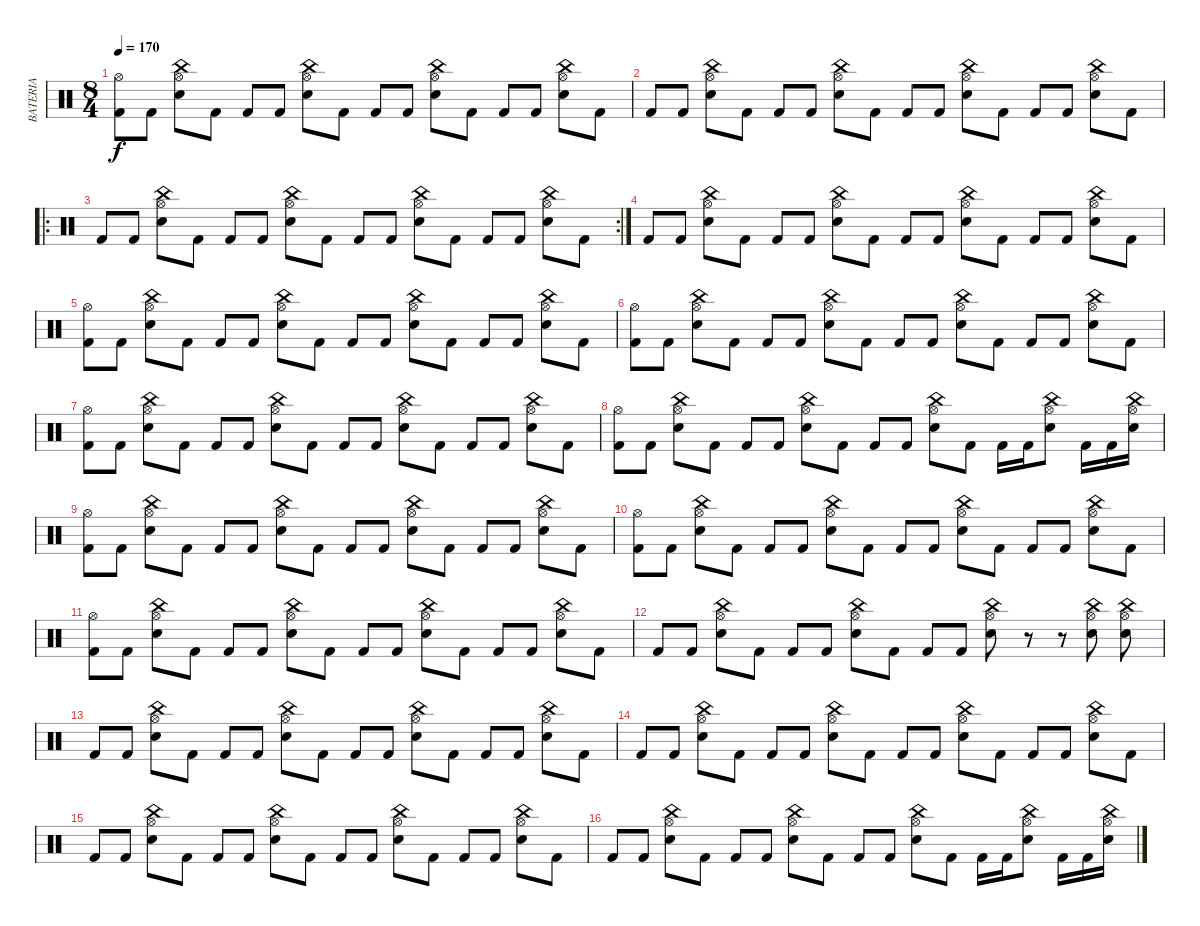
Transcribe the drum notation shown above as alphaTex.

\track ("BATERIA" "BATERIA") {instrument percussion}
\staff {score}
\articulation defaults
\ts (8 4)
\tempo 170
\clef neutral
\ks c
("Kick (hit) 2" "Hi-Hat (open)").8{dy f} "Kick (hit) 2".8 ("Snare (hit) 2" "Hi-Hat (open)" "China (hit)").8 "Kick (hit) 2".8 "Kick (hit) 2".8 "Kick (hit) 2".8 ("Snare (hit) 2" "Hi-Hat (open)" "China (hit)").8 "Kick (hit) 2".8 "Kick (hit) 2".8 "Kick (hit) 2".8 ("Snare (hit) 2" "Hi-Hat (open)" "China (hit)").8 "Kick (hit) 2".8 "Kick (hit) 2".8 "Kick (hit) 2".8 ("Snare (hit) 2" "Hi-Hat (open)" "China (hit)").8 "Kick (hit) 2".8 |
"Kick (hit) 2".8 "Kick (hit) 2".8 ("Snare (hit) 2" "Hi-Hat (open)" "China (hit)").8 "Kick (hit) 2".8 "Kick (hit) 2".8 "Kick (hit) 2".8 ("Snare (hit) 2" "Hi-Hat (open)" "China (hit)").8 "Kick (hit) 2".8 "Kick (hit) 2".8 "Kick (hit) 2".8 ("Snare (hit) 2" "Hi-Hat (open)" "China (hit)").8 "Kick (hit) 2".8 "Kick (hit) 2".8 "Kick (hit) 2".8 ("Snare (hit) 2" "Hi-Hat (open)" "China (hit)").8 "Kick (hit) 2".8 |
\ro
\rc 2 "Kick (hit) 2".8 "Kick (hit) 2".8
("Snare (hit) 2" "Hi-Hat (open)" "China (hit)").8 "Kick (hit) 2".8 "Kick (hit) 2".8 "Kick (hit) 2".8 ("Snare (hit) 2" "Hi-Hat (open)" "China (hit)").8 "Kick (hit) 2".8 "Kick (hit) 2".8 "Kick (hit) 2".8 ("Snare (hit) 2" "Hi-Hat (open)" "China (hit)").8 "Kick (hit) 2".8 "Kick (hit) 2".8 "Kick (hit) 2".8 ("Snare (hit) 2" "Hi-Hat (open)" "China (hit)").8 "Kick (hit) 2".8 |
"Kick (hit) 2".8 "Kick (hit) 2".8 ("Snare (hit) 2" "Hi-Hat (open)" "China (hit)").8 "Kick (hit) 2".8 "Kick (hit) 2".8 "Kick (hit) 2".8 ("Snare (hit) 2" "Hi-Hat (open)" "China (hit)").8 "Kick (hit) 2".8 "Kick (hit) 2".8 "Kick (hit) 2".8 ("Snare (hit) 2" "Hi-Hat (open)" "China (hit)").8 "Kick (hit) 2".8 "Kick (hit) 2".8 "Kick (hit) 2".8 ("Snare (hit) 2" "Hi-Hat (open)" "China (hit)").8 "Kick (hit) 2".8 |
("Kick (hit) 2" "Hi-Hat (open)").8 "Kick (hit) 2".8 ("Snare (hit) 2" "Hi-Hat (open)" "China (hit)").8 "Kick (hit) 2".8 "Kick (hit) 2".8 "Kick (hit) 2".8 ("Snare (hit) 2" "Hi-Hat (open)" "China (hit)").8 "Kick (hit) 2".8 "Kick (hit) 2".8 "Kick (hit) 2".8 ("Snare (hit) 2" "Hi-Hat (open)" "China (hit)").8 "Kick (hit) 2".8 "Kick (hit) 2".8 "Kick (hit) 2".8 ("Snare (hit) 2" "Hi-Hat (open)" "China (hit)").8 "Kick (hit) 2".8 |
("Kick (hit) 2" "Hi-Hat (open)").8 "Kick (hit) 2".8 ("Snare (hit) 2" "Hi-Hat (open)" "China (hit)").8 "Kick (hit) 2".8 "Kick (hit) 2".8 "Kick (hit) 2".8 ("Snare (hit) 2" "Hi-Hat (open)" "China (hit)").8 "Kick (hit) 2".8 "Kick (hit) 2".8 "Kick (hit) 2".8 ("Snare (hit) 2" "Hi-Hat (open)" "China (hit)").8 "Kick (hit) 2".8 "Kick (hit) 2".8 "Kick (hit) 2".8 ("Snare (hit) 2" "Hi-Hat (open)" "China (hit)").8 "Kick (hit) 2".8 |
("Kick (hit) 2" "Hi-Hat (open)").8 "Kick (hit) 2".8 ("Snare (hit) 2" "Hi-Hat (open)" "China (hit)").8 "Kick (hit) 2".8 "Kick (hit) 2".8 "Kick (hit) 2".8 ("Snare (hit) 2" "Hi-Hat (open)" "China (hit)").8 "Kick (hit) 2".8 "Kick (hit) 2".8 "Kick (hit) 2".8 ("Snare (hit) 2" "Hi-Hat (open)" "China (hit)").8 "Kick (hit) 2".8 "Kick (hit) 2".8 "Kick (hit) 2".8 ("Snare (hit) 2" "Hi-Hat (open)" "China (hit)").8 "Kick (hit) 2".8 |
("Kick (hit) 2" "Hi-Hat (open)").8 "Kick (hit) 2".8 ("Snare (hit) 2" "Hi-Hat (open)" "China (hit)").8 "Kick (hit) 2".8 "Kick (hit) 2".8 "Kick (hit) 2".8 ("Snare (hit) 2" "Hi-Hat (open)" "China (hit)").8 "Kick (hit) 2".8 "Kick (hit) 2".8 "Kick (hit) 2".8 ("Snare (hit) 2" "Hi-Hat (open)" "China (hit)").8 "Kick (hit) 2".8 "Kick (hit) 2".16 "Kick (hit) 2".16 ("Snare (hit) 2" "Hi-Hat (open)" "China (hit)").8 "Kick (hit) 2".16 "Kick (hit) 2".16 ("Snare (hit) 2" "China (hit)" "Hi-Hat (open)").16 |
("Kick (hit) 2" "Hi-Hat (open)").8 "Kick (hit) 2".8 ("Snare (hit) 2" "Hi-Hat (open)" "China (hit)").8 "Kick (hit) 2".8 "Kick (hit) 2".8 "Kick (hit) 2".8 ("Snare (hit) 2" "Hi-Hat (open)" "China (hit)").8 "Kick (hit) 2".8 "Kick (hit) 2".8 "Kick (hit) 2".8 ("Snare (hit) 2" "Hi-Hat (open)" "China (hit)").8 "Kick (hit) 2".8 "Kick (hit) 2".8 "Kick (hit) 2".8 ("Snare (hit) 2" "Hi-Hat (open)" "China (hit)").8 "Kick (hit) 2".8 |
("Kick (hit) 2" "Hi-Hat (open)").8 "Kick (hit) 2".8 ("Snare (hit) 2" "Hi-Hat (open)" "China (hit)").8 "Kick (hit) 2".8 "Kick (hit) 2".8 "Kick (hit) 2".8 ("Snare (hit) 2" "Hi-Hat (open)" "China (hit)").8 "Kick (hit) 2".8 "Kick (hit) 2".8 "Kick (hit) 2".8 ("Snare (hit) 2" "Hi-Hat (open)" "China (hit)").8 "Kick (hit) 2".8 "Kick (hit) 2".8 "Kick (hit) 2".8 ("Snare (hit) 2" "Hi-Hat (open)" "China (hit)").8 "Kick (hit) 2".8 |
("Kick (hit) 2" "Hi-Hat (open)").8 "Kick (hit) 2".8 ("Snare (hit) 2" "Hi-Hat (open)" "China (hit)").8 "Kick (hit) 2".8 "Kick (hit) 2".8 "Kick (hit) 2".8 ("Snare (hit) 2" "Hi-Hat (open)" "China (hit)").8 "Kick (hit) 2".8 "Kick (hit) 2".8 "Kick (hit) 2".8 ("Snare (hit) 2" "Hi-Hat (open)" "China (hit)").8 "Kick (hit) 2".8 "Kick (hit) 2".8 "Kick (hit) 2".8 ("Snare (hit) 2" "Hi-Hat (open)" "China (hit)").8 "Kick (hit) 2".8 |
"Kick (hit) 2".8 "Kick (hit) 2".8 ("Snare (hit) 2" "Hi-Hat (open)" "China (hit)").8 "Kick (hit) 2".8 "Kick (hit) 2".8 "Kick (hit) 2".8 ("Snare (hit) 2" "Hi-Hat (open)" "China (hit)").8 "Kick (hit) 2".8 "Kick (hit) 2".8 "Kick (hit) 2".8 ("Snare (hit) 2" "Hi-Hat (open)" "China (hit)").8 r.8 r.8 ("Snare (hit) 2" "Hi-Hat (open)" "China (hit)").8 ("Snare (hit) 2" "Hi-Hat (open)" "China (hit)").8 |
"Kick (hit) 2".8 "Kick (hit) 2".8 ("Snare (hit) 2" "Hi-Hat (open)" "China (hit)").8 "Kick (hit) 2".8 "Kick (hit) 2".8 "Kick (hit) 2".8 ("Snare (hit) 2" "Hi-Hat (open)" "China (hit)").8 "Kick (hit) 2".8 "Kick (hit) 2".8 "Kick (hit) 2".8 ("Snare (hit) 2" "Hi-Hat (open)" "China (hit)").8 "Kick (hit) 2".8 "Kick (hit) 2".8 "Kick (hit) 2".8 ("Snare (hit) 2" "Hi-Hat (open)" "China (hit)").8 "Kick (hit) 2".8 |
"Kick (hit) 2".8 "Kick (hit) 2".8 ("Snare (hit) 2" "Hi-Hat (open)" "China (hit)").8 "Kick (hit) 2".8 "Kick (hit) 2".8 "Kick (hit) 2".8 ("Snare (hit) 2" "Hi-Hat (open)" "China (hit)").8 "Kick (hit) 2".8 "Kick (hit) 2".8 "Kick (hit) 2".8 ("Snare (hit) 2" "Hi-Hat (open)" "China (hit)").8 "Kick (hit) 2".8 "Kick (hit) 2".8 "Kick (hit) 2".8 ("Snare (hit) 2" "Hi-Hat (open)" "China (hit)").8 "Kick (hit) 2".8 |
"Kick (hit) 2".8 "Kick (hit) 2".8 ("Snare (hit) 2" "Hi-Hat (open)" "China (hit)").8 "Kick (hit) 2".8 "Kick (hit) 2".8 "Kick (hit) 2".8 ("Snare (hit) 2" "Hi-Hat (open)" "China (hit)").8 "Kick (hit) 2".8 "Kick (hit) 2".8 "Kick (hit) 2".8 ("Snare (hit) 2" "Hi-Hat (open)" "China (hit)").8 "Kick (hit) 2".8 "Kick (hit) 2".8 "Kick (hit) 2".8 ("Snare (hit) 2" "Hi-Hat (open)" "China (hit)").8 "Kick (hit) 2".8 |
"Kick (hit) 2".8 "Kick (hit) 2".8 ("Snare (hit) 2" "Hi-Hat (open)" "China (hit)").8 "Kick (hit) 2".8 "Kick (hit) 2".8 "Kick (hit) 2".8 ("Snare (hit) 2" "Hi-Hat (open)" "China (hit)").8 "Kick (hit) 2".8 "Kick (hit) 2".8 "Kick (hit) 2".8 ("Snare (hit) 2" "Hi-Hat (open)" "China (hit)").8 "Kick (hit) 2".8 "Kick (hit) 2".16 "Kick (hit) 2".16 ("Snare (hit) 2" "Hi-Hat (open)" "China (hit)").8 "Kick (hit) 2".16 "Kick (hit) 2".16 ("Snare (hit) 2" "China (hit)" "Hi-Hat (open)").16
